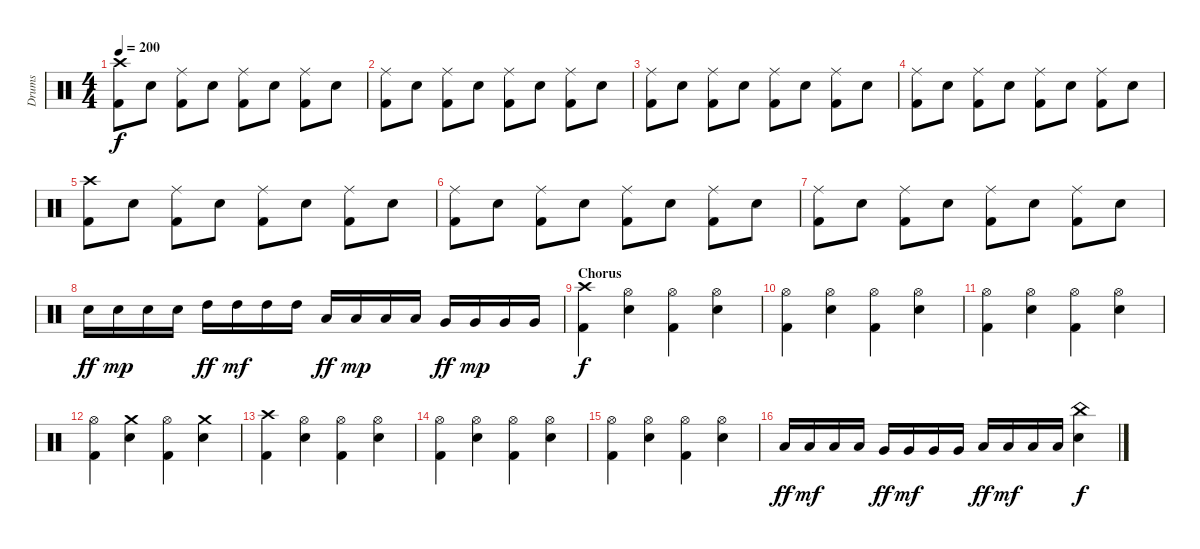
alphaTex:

\track ("Drums" "Drums") {instrument percussion}
\staff {score}
\articulation defaults
\ts (4 4)
\tempo 200
\clef neutral
\ks c
("Crash high (hit)" "Kick (hit) 2").8{dy f} "Electric Snare (hit)".8 ("Ride (middle)" "Kick (hit) 2").8 "Electric Snare (hit)".8 ("Ride (middle)" "Kick (hit) 2").8 "Electric Snare (hit)".8 ("Ride (middle)" "Kick (hit) 2").8 "Electric Snare (hit)".8 |
("Ride (middle)" "Kick (hit) 2").8 "Electric Snare (hit)".8 ("Ride (middle)" "Kick (hit) 2").8 "Electric Snare (hit)".8 ("Ride (middle)" "Kick (hit) 2").8 "Electric Snare (hit)".8 ("Ride (middle)" "Kick (hit) 2").8 "Electric Snare (hit)".8 |
("Ride (middle)" "Kick (hit) 2").8 "Electric Snare (hit)".8 ("Ride (middle)" "Kick (hit) 2").8 "Electric Snare (hit)".8 ("Ride (middle)" "Kick (hit) 2").8 "Electric Snare (hit)".8 ("Ride (middle)" "Kick (hit) 2").8 "Electric Snare (hit)".8 |
("Ride (middle)" "Kick (hit) 2").8 "Electric Snare (hit)".8 ("Ride (middle)" "Kick (hit) 2").8 "Electric Snare (hit)".8 ("Ride (middle)" "Kick (hit) 2").8 "Electric Snare (hit)".8 ("Ride (middle)" "Kick (hit) 2").8 "Electric Snare (hit)".8 |
("Crash high (hit)" "Kick (hit) 2").8 "Electric Snare (hit)".8 ("Ride (middle)" "Kick (hit) 2").8 "Electric Snare (hit)".8 ("Ride (middle)" "Kick (hit) 2").8 "Electric Snare (hit)".8 ("Ride (middle)" "Kick (hit) 2").8 "Electric Snare (hit)".8 |
("Ride (middle)" "Kick (hit) 2").8 "Electric Snare (hit)".8 ("Ride (middle)" "Kick (hit) 2").8 "Electric Snare (hit)".8 ("Ride (middle)" "Kick (hit) 2").8 "Electric Snare (hit)".8 ("Ride (middle)" "Kick (hit) 2").8 "Electric Snare (hit)".8 |
("Ride (middle)" "Kick (hit) 2").8 "Electric Snare (hit)".8 ("Ride (middle)" "Kick (hit) 2").8 "Electric Snare (hit)".8 ("Ride (middle)" "Kick (hit) 2").8 "Electric Snare (hit)".8 ("Ride (middle)" "Kick (hit) 2").8 "Electric Snare (hit)".8 |
"Electric Snare (hit)".16{dy ff} "Electric Snare (hit)".16{dy mp} "Electric Snare (hit)".16 "Electric Snare (hit)".16 "High Tom (hit)".16{dy ff} "High Tom (hit)".16{dy mf} "High Tom (hit)".16 "High Tom (hit)".16 "Low Tom (hit)".16{dy ff} "Low Tom (hit)".16{dy mp} "Low Tom (hit)".16 "Low Tom (hit)".16 "Very Low Tom (hit)".16{dy ff} "Very Low Tom (hit)".16{dy mp} "Very Low Tom (hit)".16 "Very Low Tom (hit)".16 |
\section ("" "Chorus")
("Crash high (hit)" "Kick (hit) 2").4{dy f} ("Hi-Hat (open)" "Electric Snare (hit)").4 ("Hi-Hat (open)" "Kick (hit) 2").4 ("Hi-Hat (open)" "Electric Snare (hit)").4 |
("Hi-Hat (open)" "Kick (hit) 2").4 ("Hi-Hat (open)" "Electric Snare (hit)").4 ("Hi-Hat (open)" "Kick (hit) 2").4 ("Hi-Hat (open)" "Electric Snare (hit)").4 |
("Hi-Hat (open)" "Kick (hit) 2").4 ("Hi-Hat (open)" "Electric Snare (hit)").4 ("Hi-Hat (open)" "Kick (hit) 2").4 ("Hi-Hat (open)" "Electric Snare (hit)").4 |
("Hi-Hat (open)" "Kick (hit) 2").4 ("Crash medium (hit)" "Electric Snare (hit)").4 ("Hi-Hat (open)" "Kick (hit) 2").4 ("Crash medium (hit)" "Electric Snare (hit)").4 |
("Crash high (hit)" "Kick (hit) 2").4 ("Hi-Hat (open)" "Electric Snare (hit)").4 ("Hi-Hat (open)" "Kick (hit) 2").4 ("Hi-Hat (open)" "Electric Snare (hit)").4 |
("Hi-Hat (open)" "Kick (hit) 2").4 ("Hi-Hat (open)" "Electric Snare (hit)").4 ("Hi-Hat (open)" "Kick (hit) 2").4 ("Hi-Hat (open)" "Electric Snare (hit)").4 |
("Hi-Hat (open)" "Kick (hit) 2").4 ("Hi-Hat (open)" "Electric Snare (hit)").4 ("Hi-Hat (open)" "Kick (hit) 2").4 ("Hi-Hat (open)" "Electric Snare (hit)").4 |
"Low Tom (hit)".16{dy ff} "Low Tom (hit)".16{dy mf} "Low Tom (hit)".16 "Low Tom (hit)".16 "Very Low Tom (hit)".16{dy ff} "Very Low Tom (hit)".16{dy mf} "Very Low Tom (hit)".16 "Very Low Tom (hit)".16 "Low Floor Tom (hit)".16{dy ff} "Low Floor Tom (hit)".16{dy mf} "Low Floor Tom (hit)".16 "Low Floor Tom (hit)".16 ("China (hit)" "Electric Snare (hit)").4{dy f}
